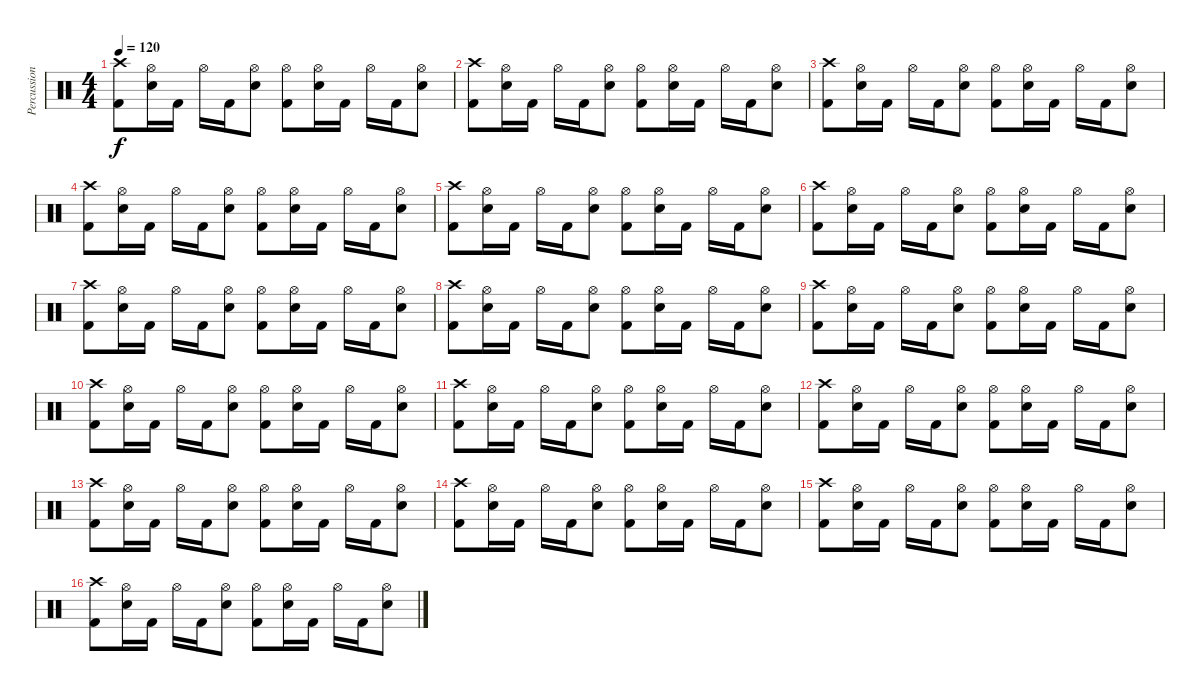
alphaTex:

\track ("Percussion" "Percussion") {instrument percussion}
\staff {score}
\articulation defaults
\ts (4 4)
\tempo 120
\clef neutral
\ks c
("Crash high (hit)" "Kick (hit) 2").8{dy f} ("Hi-Hat (open)" "Snare (hit) 2").16 "Kick (hit) 2".16 "Hi-Hat (open)".16 "Kick (hit) 2".16 ("Hi-Hat (open)" "Snare (hit) 2").8 ("Hi-Hat (open)" "Kick (hit) 2").8 ("Hi-Hat (open)" "Snare (hit) 2").16 "Kick (hit) 2".16 "Hi-Hat (open)".16 "Kick (hit) 2".16 ("Hi-Hat (open)" "Snare (hit) 2").8 |
("Crash high (hit)" "Kick (hit) 2").8 ("Hi-Hat (open)" "Snare (hit) 2").16 "Kick (hit) 2".16 "Hi-Hat (open)".16 "Kick (hit) 2".16 ("Hi-Hat (open)" "Snare (hit) 2").8 ("Hi-Hat (open)" "Kick (hit) 2").8 ("Hi-Hat (open)" "Snare (hit) 2").16 "Kick (hit) 2".16 "Hi-Hat (open)".16 "Kick (hit) 2".16 ("Hi-Hat (open)" "Snare (hit) 2").8 |
("Crash high (hit)" "Kick (hit) 2").8 ("Hi-Hat (open)" "Snare (hit) 2").16 "Kick (hit) 2".16 "Hi-Hat (open)".16 "Kick (hit) 2".16 ("Hi-Hat (open)" "Snare (hit) 2").8 ("Hi-Hat (open)" "Kick (hit) 2").8 ("Hi-Hat (open)" "Snare (hit) 2").16 "Kick (hit) 2".16 "Hi-Hat (open)".16 "Kick (hit) 2".16 ("Hi-Hat (open)" "Snare (hit) 2").8 |
("Crash high (hit)" "Kick (hit) 2").8 ("Hi-Hat (open)" "Snare (hit) 2").16 "Kick (hit) 2".16 "Hi-Hat (open)".16 "Kick (hit) 2".16 ("Hi-Hat (open)" "Snare (hit) 2").8 ("Hi-Hat (open)" "Kick (hit) 2").8 ("Hi-Hat (open)" "Snare (hit) 2").16 "Kick (hit) 2".16 "Hi-Hat (open)".16 "Kick (hit) 2".16 ("Hi-Hat (open)" "Snare (hit) 2").8 |
("Crash high (hit)" "Kick (hit) 2").8 ("Hi-Hat (open)" "Snare (hit) 2").16 "Kick (hit) 2".16 "Hi-Hat (open)".16 "Kick (hit) 2".16 ("Hi-Hat (open)" "Snare (hit) 2").8 ("Hi-Hat (open)" "Kick (hit) 2").8 ("Hi-Hat (open)" "Snare (hit) 2").16 "Kick (hit) 2".16 "Hi-Hat (open)".16 "Kick (hit) 2".16 ("Hi-Hat (open)" "Snare (hit) 2").8 |
("Crash high (hit)" "Kick (hit) 2").8 ("Hi-Hat (open)" "Snare (hit) 2").16 "Kick (hit) 2".16 "Hi-Hat (open)".16 "Kick (hit) 2".16 ("Hi-Hat (open)" "Snare (hit) 2").8 ("Hi-Hat (open)" "Kick (hit) 2").8 ("Hi-Hat (open)" "Snare (hit) 2").16 "Kick (hit) 2".16 "Hi-Hat (open)".16 "Kick (hit) 2".16 ("Hi-Hat (open)" "Snare (hit) 2").8 |
("Crash high (hit)" "Kick (hit) 2").8 ("Hi-Hat (open)" "Snare (hit) 2").16 "Kick (hit) 2".16 "Hi-Hat (open)".16 "Kick (hit) 2".16 ("Hi-Hat (open)" "Snare (hit) 2").8 ("Hi-Hat (open)" "Kick (hit) 2").8 ("Hi-Hat (open)" "Snare (hit) 2").16 "Kick (hit) 2".16 "Hi-Hat (open)".16 "Kick (hit) 2".16 ("Hi-Hat (open)" "Snare (hit) 2").8 |
("Crash high (hit)" "Kick (hit) 2").8 ("Hi-Hat (open)" "Snare (hit) 2").16 "Kick (hit) 2".16 "Hi-Hat (open)".16 "Kick (hit) 2".16 ("Hi-Hat (open)" "Snare (hit) 2").8 ("Hi-Hat (open)" "Kick (hit) 2").8 ("Hi-Hat (open)" "Snare (hit) 2").16 "Kick (hit) 2".16 "Hi-Hat (open)".16 "Kick (hit) 2".16 ("Hi-Hat (open)" "Snare (hit) 2").8 |
("Crash high (hit)" "Kick (hit) 2").8 ("Hi-Hat (open)" "Snare (hit) 2").16 "Kick (hit) 2".16 "Hi-Hat (open)".16 "Kick (hit) 2".16 ("Hi-Hat (open)" "Snare (hit) 2").8 ("Hi-Hat (open)" "Kick (hit) 2").8 ("Hi-Hat (open)" "Snare (hit) 2").16 "Kick (hit) 2".16 "Hi-Hat (open)".16 "Kick (hit) 2".16 ("Hi-Hat (open)" "Snare (hit) 2").8 |
("Crash high (hit)" "Kick (hit) 2").8 ("Hi-Hat (open)" "Snare (hit) 2").16 "Kick (hit) 2".16 "Hi-Hat (open)".16 "Kick (hit) 2".16 ("Hi-Hat (open)" "Snare (hit) 2").8 ("Hi-Hat (open)" "Kick (hit) 2").8 ("Hi-Hat (open)" "Snare (hit) 2").16 "Kick (hit) 2".16 "Hi-Hat (open)".16 "Kick (hit) 2".16 ("Hi-Hat (open)" "Snare (hit) 2").8 |
("Crash high (hit)" "Kick (hit) 2").8 ("Hi-Hat (open)" "Snare (hit) 2").16 "Kick (hit) 2".16 "Hi-Hat (open)".16 "Kick (hit) 2".16 ("Hi-Hat (open)" "Snare (hit) 2").8 ("Hi-Hat (open)" "Kick (hit) 2").8 ("Hi-Hat (open)" "Snare (hit) 2").16 "Kick (hit) 2".16 "Hi-Hat (open)".16 "Kick (hit) 2".16 ("Hi-Hat (open)" "Snare (hit) 2").8 |
("Crash high (hit)" "Kick (hit) 2").8 ("Hi-Hat (open)" "Snare (hit) 2").16 "Kick (hit) 2".16 "Hi-Hat (open)".16 "Kick (hit) 2".16 ("Hi-Hat (open)" "Snare (hit) 2").8 ("Hi-Hat (open)" "Kick (hit) 2").8 ("Hi-Hat (open)" "Snare (hit) 2").16 "Kick (hit) 2".16 "Hi-Hat (open)".16 "Kick (hit) 2".16 ("Hi-Hat (open)" "Snare (hit) 2").8 |
("Crash high (hit)" "Kick (hit) 2").8 ("Hi-Hat (open)" "Snare (hit) 2").16 "Kick (hit) 2".16 "Hi-Hat (open)".16 "Kick (hit) 2".16 ("Hi-Hat (open)" "Snare (hit) 2").8 ("Hi-Hat (open)" "Kick (hit) 2").8 ("Hi-Hat (open)" "Snare (hit) 2").16 "Kick (hit) 2".16 "Hi-Hat (open)".16 "Kick (hit) 2".16 ("Hi-Hat (open)" "Snare (hit) 2").8 |
("Crash high (hit)" "Kick (hit) 2").8 ("Hi-Hat (open)" "Snare (hit) 2").16 "Kick (hit) 2".16 "Hi-Hat (open)".16 "Kick (hit) 2".16 ("Hi-Hat (open)" "Snare (hit) 2").8 ("Hi-Hat (open)" "Kick (hit) 2").8 ("Hi-Hat (open)" "Snare (hit) 2").16 "Kick (hit) 2".16 "Hi-Hat (open)".16 "Kick (hit) 2".16 ("Hi-Hat (open)" "Snare (hit) 2").8 |
("Crash high (hit)" "Kick (hit) 2").8 ("Hi-Hat (open)" "Snare (hit) 2").16 "Kick (hit) 2".16 "Hi-Hat (open)".16 "Kick (hit) 2".16 ("Hi-Hat (open)" "Snare (hit) 2").8 ("Hi-Hat (open)" "Kick (hit) 2").8 ("Hi-Hat (open)" "Snare (hit) 2").16 "Kick (hit) 2".16 "Hi-Hat (open)".16 "Kick (hit) 2".16 ("Hi-Hat (open)" "Snare (hit) 2").8 |
("Crash high (hit)" "Kick (hit) 2").8 ("Hi-Hat (open)" "Snare (hit) 2").16 "Kick (hit) 2".16 "Hi-Hat (open)".16 "Kick (hit) 2".16 ("Hi-Hat (open)" "Snare (hit) 2").8 ("Hi-Hat (open)" "Kick (hit) 2").8 ("Hi-Hat (open)" "Snare (hit) 2").16 "Kick (hit) 2".16 "Hi-Hat (open)".16 "Kick (hit) 2".16 ("Hi-Hat (open)" "Snare (hit) 2").8
